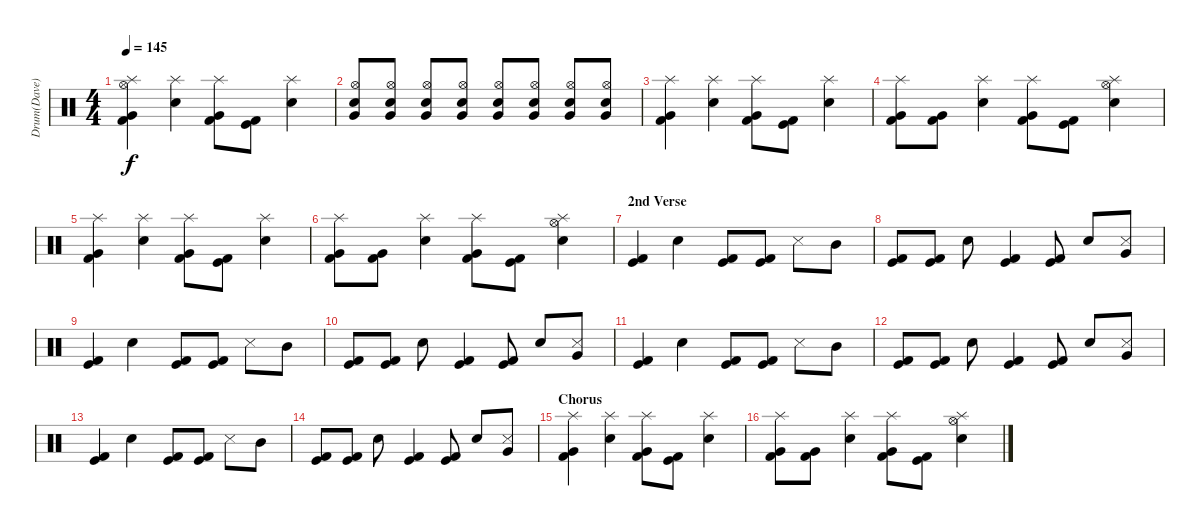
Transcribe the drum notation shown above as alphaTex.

\track ("Drum(Dave)" "Drum(Dave)") {instrument percussion}
\staff {score}
\articulation defaults
\ts (4 4)
\tempo 145
\clef neutral
\ks c
("Kick (hit) 2" "Very Low Tom (hit)" "Splash (hit)" "Hi-Hat (open)").4{dy f} ("Electric Snare (hit)" "Splash (hit)").4 ("Very Low Tom (hit)" "Splash (hit)" "Kick (hit) 2").8 ("Kick (hit)" "Kick (hit) 2").8 ("Splash (hit)" "Electric Snare (hit)").4 |
("Electric Snare (hit)" "Hi-Hat (open)" "Very Low Tom (hit)").8 ("Electric Snare (hit)" "Hi-Hat (open)" "Very Low Tom (hit)").8 ("Electric Snare (hit)" "Hi-Hat (open)" "Very Low Tom (hit)").8 ("Electric Snare (hit)" "Hi-Hat (open)" "Very Low Tom (hit)").8 ("Electric Snare (hit)" "Hi-Hat (open)" "Very Low Tom (hit)").8 ("Electric Snare (hit)" "Hi-Hat (open)" "Very Low Tom (hit)").8 ("Electric Snare (hit)" "Hi-Hat (open)" "Very Low Tom (hit)").8 ("Electric Snare (hit)" "Hi-Hat (open)" "Very Low Tom (hit)").8 |
("Kick (hit) 2" "Very Low Tom (hit)" "Splash (hit)").4 ("Electric Snare (hit)" "Splash (hit)").4 ("Very Low Tom (hit)" "Splash (hit)" "Kick (hit) 2").8 ("Kick (hit)" "Kick (hit) 2").8 ("Splash (hit)" "Electric Snare (hit)").4 |
("Kick (hit) 2" "Very Low Tom (hit)" "Splash (hit)").8 ("Kick (hit) 2" "Very Low Tom (hit)").8 ("Electric Snare (hit)" "Splash (hit)").4 ("Very Low Tom (hit)" "Splash (hit)" "Kick (hit) 2").8 ("Kick (hit)" "Kick (hit) 2").8 ("Splash (hit)" "Electric Snare (hit)" "Hi-Hat (open)").4 |
("Kick (hit) 2" "Very Low Tom (hit)" "Splash (hit)").4 ("Electric Snare (hit)" "Splash (hit)").4 ("Very Low Tom (hit)" "Splash (hit)" "Kick (hit) 2").8 ("Kick (hit)" "Kick (hit) 2").8 ("Splash (hit)" "Electric Snare (hit)").4 |
("Kick (hit) 2" "Very Low Tom (hit)" "Splash (hit)").8 ("Kick (hit) 2" "Very Low Tom (hit)").8 ("Electric Snare (hit)" "Splash (hit)").4 ("Very Low Tom (hit)" "Splash (hit)" "Kick (hit) 2").8 ("Kick (hit)" "Kick (hit) 2").8 ("Splash (hit)" "Electric Snare (hit)" "Hi-Hat (open)").4 |
\section ("" "2nd Verse")
("Kick (hit) 2" "Kick (hit)").4 "Electric Snare (hit)".4 ("Kick (hit) 2" "Kick (hit)").8 ("Kick (hit) 2" "Kick (hit)").8 "Snare (side stick) 3".8 "Mid Tom (hit)".8 |
("Kick (hit) 2" "Kick (hit)").8 ("Kick (hit) 2" "Kick (hit)").8 "Electric Snare (hit)".8 ("Kick (hit) 2" "Kick (hit)").4 ("Kick (hit) 2" "Kick (hit)").8 "Electric Snare (hit)".8 ("Very Low Tom (hit)" "Snare (side stick) 3").8 |
("Kick (hit) 2" "Kick (hit)").4 "Electric Snare (hit)".4 ("Kick (hit) 2" "Kick (hit)").8 ("Kick (hit) 2" "Kick (hit)").8 "Snare (side stick) 3".8 "Mid Tom (hit)".8 |
("Kick (hit) 2" "Kick (hit)").8 ("Kick (hit) 2" "Kick (hit)").8 "Electric Snare (hit)".8 ("Kick (hit) 2" "Kick (hit)").4 ("Kick (hit) 2" "Kick (hit)").8 "Electric Snare (hit)".8 ("Very Low Tom (hit)" "Snare (side stick) 3").8 |
("Kick (hit) 2" "Kick (hit)").4 "Electric Snare (hit)".4 ("Kick (hit) 2" "Kick (hit)").8 ("Kick (hit) 2" "Kick (hit)").8 "Snare (side stick) 3".8 "Mid Tom (hit)".8 |
("Kick (hit) 2" "Kick (hit)").8 ("Kick (hit) 2" "Kick (hit)").8 "Electric Snare (hit)".8 ("Kick (hit) 2" "Kick (hit)").4 ("Kick (hit) 2" "Kick (hit)").8 "Electric Snare (hit)".8 ("Very Low Tom (hit)" "Snare (side stick) 3").8 |
("Kick (hit) 2" "Kick (hit)").4 "Electric Snare (hit)".4 ("Kick (hit) 2" "Kick (hit)").8 ("Kick (hit) 2" "Kick (hit)").8 "Snare (side stick) 3".8 "Mid Tom (hit)".8 |
("Kick (hit) 2" "Kick (hit)").8 ("Kick (hit) 2" "Kick (hit)").8 "Electric Snare (hit)".8 ("Kick (hit) 2" "Kick (hit)").4 ("Kick (hit) 2" "Kick (hit)").8 "Electric Snare (hit)".8 ("Very Low Tom (hit)" "Snare (side stick) 3").8 |
\section ("" "Chorus")
("Kick (hit) 2" "Very Low Tom (hit)" "Splash (hit)").4 ("Electric Snare (hit)" "Splash (hit)").4 ("Very Low Tom (hit)" "Splash (hit)" "Kick (hit) 2").8 ("Kick (hit)" "Kick (hit) 2").8 ("Splash (hit)" "Electric Snare (hit)").4 |
("Kick (hit) 2" "Very Low Tom (hit)" "Splash (hit)").8 ("Kick (hit) 2" "Very Low Tom (hit)").8 ("Electric Snare (hit)" "Splash (hit)").4 ("Very Low Tom (hit)" "Splash (hit)" "Kick (hit) 2").8 ("Kick (hit)" "Kick (hit) 2").8 ("Splash (hit)" "Electric Snare (hit)" "Hi-Hat (open)").4
